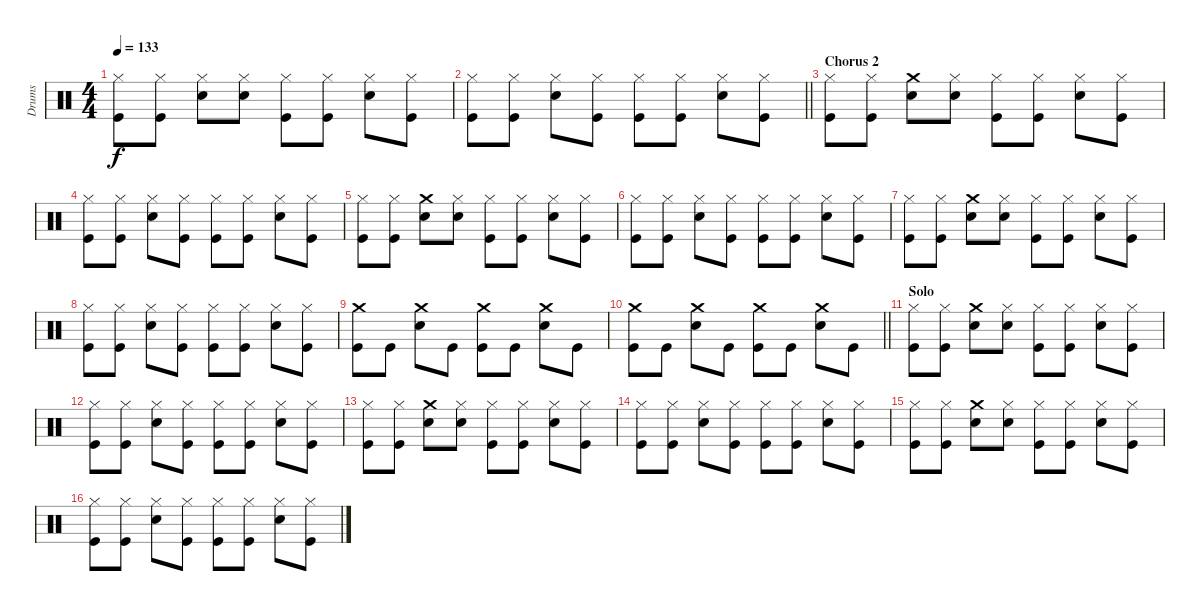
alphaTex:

\track ("Drums" "Drums") {instrument percussion}
\staff {score}
\articulation defaults
\ts (4 4)
\tempo 133
\clef neutral
\ks c
("Hi-Hat (closed)" "Kick (hit)").8{dy f} ("Hi-Hat (closed)" "Kick (hit)").8 ("Hi-Hat (closed)" "Snare (hit) 2").8 ("Hi-Hat (closed)" "Snare (hit) 2").8 ("Hi-Hat (closed)" "Kick (hit)").8 ("Hi-Hat (closed)" "Kick (hit)").8 ("Hi-Hat (closed)" "Snare (hit) 2").8 ("Hi-Hat (closed)" "Kick (hit)").8 |
\barLineRight lightlight
("Hi-Hat (closed)" "Kick (hit)").8 ("Hi-Hat (closed)" "Kick (hit)").8 ("Hi-Hat (closed)" "Snare (hit) 2").8 ("Hi-Hat (closed)" "Kick (hit)").8 ("Hi-Hat (closed)" "Kick (hit)").8 ("Hi-Hat (closed)" "Kick (hit)").8 ("Hi-Hat (closed)" "Snare (hit) 2").8 ("Hi-Hat (closed)" "Kick (hit)").8 |
\section ("" "Chorus 2")
("Hi-Hat (closed)" "Kick (hit)").8 ("Hi-Hat (closed)" "Kick (hit)").8 ("Crash medium (hit)" "Snare (hit) 2").8 ("Hi-Hat (closed)" "Snare (hit) 2").8 ("Hi-Hat (closed)" "Kick (hit)").8 ("Hi-Hat (closed)" "Kick (hit)").8 ("Hi-Hat (closed)" "Snare (hit) 2").8 ("Hi-Hat (closed)" "Kick (hit)").8 |
("Hi-Hat (closed)" "Kick (hit)").8 ("Hi-Hat (closed)" "Kick (hit)").8 ("Hi-Hat (closed)" "Snare (hit) 2").8 ("Hi-Hat (closed)" "Kick (hit)").8 ("Hi-Hat (closed)" "Kick (hit)").8 ("Hi-Hat (closed)" "Kick (hit)").8 ("Hi-Hat (closed)" "Snare (hit) 2").8 ("Hi-Hat (closed)" "Kick (hit)").8 |
("Hi-Hat (closed)" "Kick (hit)").8 ("Hi-Hat (closed)" "Kick (hit)").8 ("Crash medium (hit)" "Snare (hit) 2").8 ("Hi-Hat (closed)" "Snare (hit) 2").8 ("Hi-Hat (closed)" "Kick (hit)").8 ("Hi-Hat (closed)" "Kick (hit)").8 ("Hi-Hat (closed)" "Snare (hit) 2").8 ("Hi-Hat (closed)" "Kick (hit)").8 |
("Hi-Hat (closed)" "Kick (hit)").8 ("Hi-Hat (closed)" "Kick (hit)").8 ("Hi-Hat (closed)" "Snare (hit) 2").8 ("Hi-Hat (closed)" "Kick (hit)").8 ("Hi-Hat (closed)" "Kick (hit)").8 ("Hi-Hat (closed)" "Kick (hit)").8 ("Hi-Hat (closed)" "Snare (hit) 2").8 ("Hi-Hat (closed)" "Kick (hit)").8 |
("Hi-Hat (closed)" "Kick (hit)").8 ("Hi-Hat (closed)" "Kick (hit)").8 ("Crash medium (hit)" "Snare (hit) 2").8 ("Hi-Hat (closed)" "Snare (hit) 2").8 ("Hi-Hat (closed)" "Kick (hit)").8 ("Hi-Hat (closed)" "Kick (hit)").8 ("Hi-Hat (closed)" "Snare (hit) 2").8 ("Hi-Hat (closed)" "Kick (hit)").8 |
("Hi-Hat (closed)" "Kick (hit)").8 ("Hi-Hat (closed)" "Kick (hit)").8 ("Hi-Hat (closed)" "Snare (hit) 2").8 ("Hi-Hat (closed)" "Kick (hit)").8 ("Hi-Hat (closed)" "Kick (hit)").8 ("Hi-Hat (closed)" "Kick (hit)").8 ("Hi-Hat (closed)" "Snare (hit) 2").8 ("Hi-Hat (closed)" "Kick (hit)").8 |
("Crash medium (hit)" "Kick (hit)").8 "Kick (hit)".8 ("Crash medium (hit)" "Snare (hit) 2").8 "Kick (hit)".8 ("Crash medium (hit)" "Kick (hit)").8 "Kick (hit)".8 ("Crash medium (hit)" "Snare (hit) 2").8 "Kick (hit)".8 |
\barLineRight lightlight
("Crash medium (hit)" "Kick (hit)").8 "Kick (hit)".8 ("Crash medium (hit)" "Snare (hit) 2").8 "Kick (hit)".8 ("Crash medium (hit)" "Kick (hit)").8 "Kick (hit)".8 ("Crash medium (hit)" "Snare (hit) 2").8 "Kick (hit)".8 |
\section ("" "Solo")
("Hi-Hat (closed)" "Kick (hit)").8 ("Hi-Hat (closed)" "Kick (hit)").8 ("Crash medium (hit)" "Snare (hit) 2").8 ("Hi-Hat (closed)" "Snare (hit) 2").8 ("Hi-Hat (closed)" "Kick (hit)").8 ("Hi-Hat (closed)" "Kick (hit)").8 ("Hi-Hat (closed)" "Snare (hit) 2").8 ("Hi-Hat (closed)" "Kick (hit)").8 |
("Hi-Hat (closed)" "Kick (hit)").8 ("Hi-Hat (closed)" "Kick (hit)").8 ("Hi-Hat (closed)" "Snare (hit) 2").8 ("Hi-Hat (closed)" "Kick (hit)").8 ("Hi-Hat (closed)" "Kick (hit)").8 ("Hi-Hat (closed)" "Kick (hit)").8 ("Hi-Hat (closed)" "Snare (hit) 2").8 ("Hi-Hat (closed)" "Kick (hit)").8 |
("Hi-Hat (closed)" "Kick (hit)").8 ("Hi-Hat (closed)" "Kick (hit)").8 ("Crash medium (hit)" "Snare (hit) 2").8 ("Hi-Hat (closed)" "Snare (hit) 2").8 ("Hi-Hat (closed)" "Kick (hit)").8 ("Hi-Hat (closed)" "Kick (hit)").8 ("Hi-Hat (closed)" "Snare (hit) 2").8 ("Hi-Hat (closed)" "Kick (hit)").8 |
("Hi-Hat (closed)" "Kick (hit)").8 ("Hi-Hat (closed)" "Kick (hit)").8 ("Hi-Hat (closed)" "Snare (hit) 2").8 ("Hi-Hat (closed)" "Kick (hit)").8 ("Hi-Hat (closed)" "Kick (hit)").8 ("Hi-Hat (closed)" "Kick (hit)").8 ("Hi-Hat (closed)" "Snare (hit) 2").8 ("Hi-Hat (closed)" "Kick (hit)").8 |
("Hi-Hat (closed)" "Kick (hit)").8 ("Hi-Hat (closed)" "Kick (hit)").8 ("Crash medium (hit)" "Snare (hit) 2").8 ("Hi-Hat (closed)" "Snare (hit) 2").8 ("Hi-Hat (closed)" "Kick (hit)").8 ("Hi-Hat (closed)" "Kick (hit)").8 ("Hi-Hat (closed)" "Snare (hit) 2").8 ("Hi-Hat (closed)" "Kick (hit)").8 |
("Hi-Hat (closed)" "Kick (hit)").8 ("Hi-Hat (closed)" "Kick (hit)").8 ("Hi-Hat (closed)" "Snare (hit) 2").8 ("Hi-Hat (closed)" "Kick (hit)").8 ("Hi-Hat (closed)" "Kick (hit)").8 ("Hi-Hat (closed)" "Kick (hit)").8 ("Hi-Hat (closed)" "Snare (hit) 2").8 ("Hi-Hat (closed)" "Kick (hit)").8
